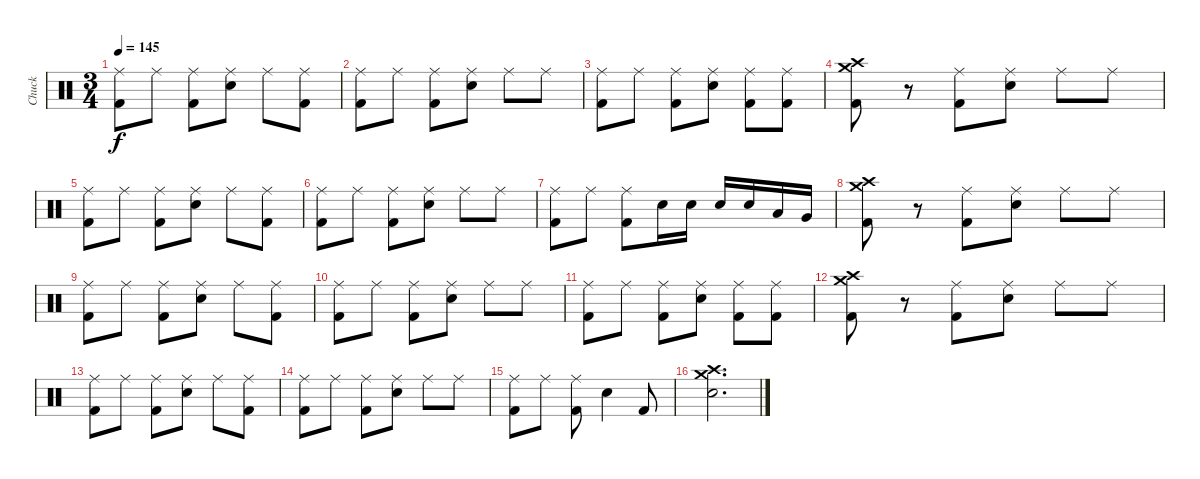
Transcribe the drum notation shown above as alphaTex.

\track ("Chuck" "Chuck") {instrument percussion}
\staff {score}
\articulation defaults
\ts (3 4)
\tempo 145
\clef neutral
\ks c
("Ride (middle)" "Kick (hit) 2").8{dy f} "Ride (middle)".8 ("Ride (middle)" "Kick (hit) 2").8 ("Ride (middle)" "Electric Snare (hit)").8 "Ride (middle)".8 ("Ride (middle)" "Kick (hit) 2").8 |
("Ride (middle)" "Kick (hit) 2").8 "Ride (middle)".8 ("Ride (middle)" "Kick (hit) 2").8 ("Ride (middle)" "Electric Snare (hit)").8 "Ride (middle)".8 "Ride (middle)".8 |
("Ride (middle)" "Kick (hit) 2").8 "Ride (middle)".8 ("Ride (middle)" "Kick (hit) 2").8 ("Ride (middle)" "Electric Snare (hit)").8 ("Ride (middle)" "Kick (hit) 2").8 ("Ride (middle)" "Kick (hit) 2").8 |
("Crash medium (hit)" "Crash high (hit)" "Kick (hit) 2").8 r.8 ("Ride (middle)" "Kick (hit) 2").8 ("Ride (middle)" "Electric Snare (hit)").8 "Ride (middle)".8 "Ride (middle)".8 |
("Ride (middle)" "Kick (hit) 2").8 "Ride (middle)".8 ("Ride (middle)" "Kick (hit) 2").8 ("Ride (middle)" "Electric Snare (hit)").8 "Ride (middle)".8 ("Ride (middle)" "Kick (hit) 2").8 |
("Ride (middle)" "Kick (hit) 2").8 "Ride (middle)".8 ("Ride (middle)" "Kick (hit) 2").8 ("Ride (middle)" "Electric Snare (hit)").8 "Ride (middle)".8 "Ride (middle)".8 |
("Ride (middle)" "Kick (hit) 2").8 "Ride (middle)".8 ("Ride (middle)" "Kick (hit) 2").8 "Electric Snare (hit)".16 "Electric Snare (hit)".16 "Electric Snare (hit)".16 "Electric Snare (hit)".16 "Low Tom (hit)".16 "Very Low Tom (hit)".16 |
("Crash medium (hit)" "Crash high (hit)" "Kick (hit) 2").8 r.8 ("Ride (middle)" "Kick (hit) 2").8 ("Ride (middle)" "Electric Snare (hit)").8 "Ride (middle)".8 "Ride (middle)".8 |
("Ride (middle)" "Kick (hit) 2").8 "Ride (middle)".8 ("Ride (middle)" "Kick (hit) 2").8 ("Ride (middle)" "Electric Snare (hit)").8 "Ride (middle)".8 ("Ride (middle)" "Kick (hit) 2").8 |
("Ride (middle)" "Kick (hit) 2").8 "Ride (middle)".8 ("Ride (middle)" "Kick (hit) 2").8 ("Ride (middle)" "Electric Snare (hit)").8 "Ride (middle)".8 "Ride (middle)".8 |
("Ride (middle)" "Kick (hit) 2").8 "Ride (middle)".8 ("Ride (middle)" "Kick (hit) 2").8 ("Ride (middle)" "Electric Snare (hit)").8 ("Ride (middle)" "Kick (hit) 2").8 ("Ride (middle)" "Kick (hit) 2").8 |
("Crash medium (hit)" "Crash high (hit)" "Kick (hit) 2").8 r.8 ("Ride (middle)" "Kick (hit) 2").8 ("Ride (middle)" "Electric Snare (hit)").8 "Ride (middle)".8 "Ride (middle)".8 |
("Ride (middle)" "Kick (hit) 2").8 "Ride (middle)".8 ("Ride (middle)" "Kick (hit) 2").8 ("Ride (middle)" "Electric Snare (hit)").8 "Ride (middle)".8 ("Ride (middle)" "Kick (hit) 2").8 |
("Ride (middle)" "Kick (hit) 2").8 "Ride (middle)".8 ("Ride (middle)" "Kick (hit) 2").8 ("Ride (middle)" "Electric Snare (hit)").8 "Ride (middle)".8 "Ride (middle)".8 |
("Ride (middle)" "Kick (hit) 2").8 "Ride (middle)".8 ("Ride (middle)" "Kick (hit) 2").8 "Electric Snare (hit)".4 "Kick (hit) 2".8 |
("Crash medium (hit)" "Crash high (hit)" "Electric Snare (hit)").2{d}
